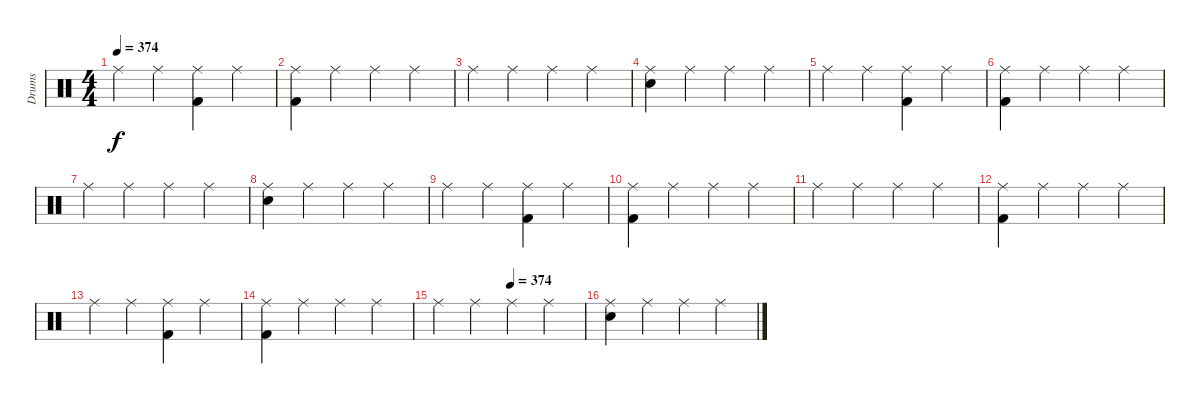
\track ("Drums" "Drums") {instrument percussion}
\staff {score}
\articulation defaults
\ts (4 4)
\tempo 374
\clef neutral
\ks c "Ride (middle)".4{dy f} "Ride (middle)".4
("Ride (middle)" "Kick (hit) 2").4 "Ride (middle)".4 |
("Ride (middle)" "Kick (hit) 2").4 "Ride (middle)".4 "Ride (middle)".4 "Ride (middle)".4 |
"Ride (middle)".4 "Ride (middle)".4 "Ride (middle)".4 "Ride (middle)".4 |
("Ride (middle)" "Snare (hit) 2").4 "Ride (middle)".4 "Ride (middle)".4 "Ride (middle)".4 |
"Ride (middle)".4 "Ride (middle)".4 ("Ride (middle)" "Kick (hit) 2").4 "Ride (middle)".4 |
("Ride (middle)" "Kick (hit) 2").4 "Ride (middle)".4 "Ride (middle)".4 "Ride (middle)".4 |
"Ride (middle)".4 "Ride (middle)".4 "Ride (middle)".4 "Ride (middle)".4 |
("Ride (middle)" "Snare (hit) 2").4 "Ride (middle)".4 "Ride (middle)".4 "Ride (middle)".4 |
"Ride (middle)".4 "Ride (middle)".4 ("Ride (middle)" "Kick (hit) 2").4 "Ride (middle)".4 |
("Ride (middle)" "Kick (hit) 2").4 "Ride (middle)".4 "Ride (middle)".4 "Ride (middle)".4 |
"Ride (middle)".4 "Ride (middle)".4 "Ride (middle)".4 "Ride (middle)".4 |
("Ride (middle)" "Kick (hit) 2").4 "Ride (middle)".4 "Ride (middle)".4 "Ride (middle)".4 |
"Ride (middle)".4 "Ride (middle)".4 ("Ride (middle)" "Kick (hit) 2").4 "Ride (middle)".4 |
("Ride (middle)" "Kick (hit) 2").4 "Ride (middle)".4 "Ride (middle)".4 "Ride (middle)".4 |
\tempo (374 0.5)
"Ride (middle)".4 "Ride (middle)".4 "Ride (middle)".4 "Ride (middle)".4 |
("Ride (middle)" "Snare (hit) 2").4 "Ride (middle)".4 "Ride (middle)".4 "Ride (middle)".4
